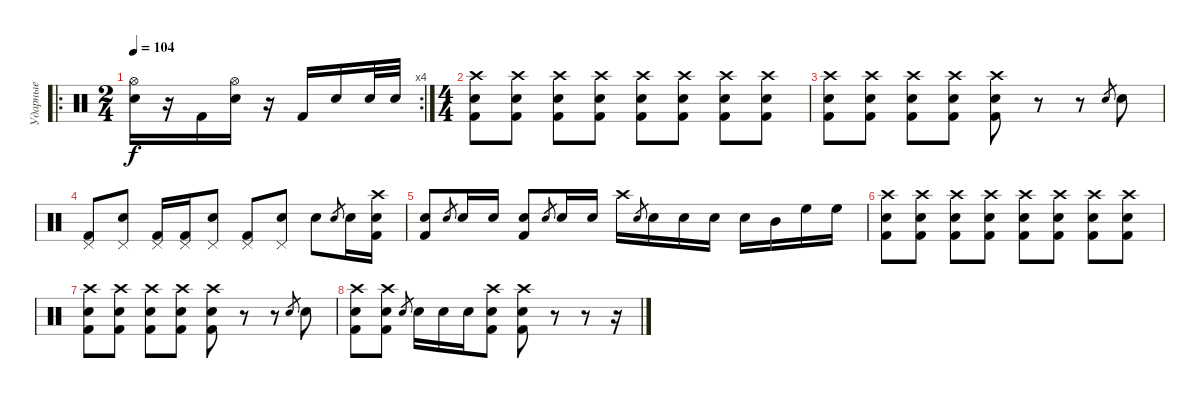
\track ("Ударные" "Ударные") {instrument percussion}
\staff
\articulation defaults
\ro
\rc 4
\ts (2 4)
\tempo 104
\clef neutral
\ks c
("Hi-Hat (open)" "Electric Snare (hit)").16{dy f} r.16 "Kick (hit) 2".16 ("Hi-Hat (open)" "Electric Snare (hit)").16 r.16 "Kick (hit) 2".16 "Electric Snare (hit)".16 "Electric Snare (hit)".32 "Electric Snare (hit)".32 |
\ts (4 4)
("Electric Snare (hit)" "Crash high (hit)" "Kick (hit) 2").8 ("Electric Snare (hit)" "Crash high (hit)" "Kick (hit) 2").8 ("Electric Snare (hit)" "Crash high (hit)" "Kick (hit) 2").8 ("Electric Snare (hit)" "Crash high (hit)" "Kick (hit) 2").8 ("Electric Snare (hit)" "Crash high (hit)" "Kick (hit) 2").8 ("Electric Snare (hit)" "Crash high (hit)" "Kick (hit) 2").8 ("Electric Snare (hit)" "Crash high (hit)" "Kick (hit) 2").8 ("Electric Snare (hit)" "Crash high (hit)" "Kick (hit) 2").8 |
("Electric Snare (hit)" "Crash high (hit)" "Kick (hit) 2").8 ("Electric Snare (hit)" "Crash high (hit)" "Kick (hit) 2").8 ("Electric Snare (hit)" "Crash high (hit)" "Kick (hit) 2").8 ("Electric Snare (hit)" "Crash high (hit)" "Kick (hit) 2").8 ("Electric Snare (hit)" "Crash high (hit)" "Kick (hit) 2").8 r.8 r.8 "Electric Snare (hit)".8{gr} "Electric Snare (hit)".8 |
("Pedal Hi-Hat (hit)" "Kick (hit) 2").8 ("Pedal Hi-Hat (hit)" "Electric Snare (hit)").8 ("Pedal Hi-Hat (hit)" "Kick (hit) 2").16 ("Pedal Hi-Hat (hit)" "Kick (hit) 2").16 ("Pedal Hi-Hat (hit)" "Electric Snare (hit)").8 ("Pedal Hi-Hat (hit)" "Kick (hit) 2").8 ("Pedal Hi-Hat (hit)" "Electric Snare (hit)").8 "Electric Snare (hit)".8 "Electric Snare (hit)".8{gr} "Electric Snare (hit)".16 ("Crash high (hit)" "Electric Snare (hit)" "Kick (hit) 2").16 |
("Electric Snare (hit)" "Kick (hit) 2").8 "Electric Snare (hit)".8{gr} "Electric Snare (hit)".16 "Electric Snare (hit)".16 ("Electric Snare (hit)" "Kick (hit) 2").8 "Electric Snare (hit)".8{gr} "Electric Snare (hit)".16 "Electric Snare (hit)".16 "Crash high (hit)".16 "Electric Snare (hit)".8{gr} "Electric Snare (hit)".16 "Electric Snare (hit)".16 "Electric Snare (hit)".16 "Electric Snare (hit)".16 "Mid Tom (hit)".16 "High Floor Tom (hit)".16 "High Floor Tom (hit)".16 |
("Electric Snare (hit)" "Crash high (hit)" "Kick (hit) 2").8 ("Electric Snare (hit)" "Crash high (hit)" "Kick (hit) 2").8 ("Electric Snare (hit)" "Crash high (hit)" "Kick (hit) 2").8 ("Electric Snare (hit)" "Crash high (hit)" "Kick (hit) 2").8 ("Electric Snare (hit)" "Crash high (hit)" "Kick (hit) 2").8 ("Electric Snare (hit)" "Crash high (hit)" "Kick (hit) 2").8 ("Electric Snare (hit)" "Crash high (hit)" "Kick (hit) 2").8 ("Electric Snare (hit)" "Crash high (hit)" "Kick (hit) 2").8 |
("Electric Snare (hit)" "Crash high (hit)" "Kick (hit) 2").8 ("Electric Snare (hit)" "Crash high (hit)" "Kick (hit) 2").8 ("Electric Snare (hit)" "Crash high (hit)" "Kick (hit) 2").8 ("Electric Snare (hit)" "Crash high (hit)" "Kick (hit) 2").8 ("Electric Snare (hit)" "Crash high (hit)" "Kick (hit) 2").8 r.8 r.8 "Electric Snare (hit)".8{gr} "Electric Snare (hit)".8 |
("Electric Snare (hit)" "Kick (hit) 2" "Crash high (hit)").8 ("Electric Snare (hit)" "Kick (hit) 2" "Crash high (hit)").8 "Electric Snare (hit)".8{gr} "Electric Snare (hit)".16 "Electric Snare (hit)".16 "Electric Snare (hit)".16 ("Electric Snare (hit)" "Kick (hit) 2" "Crash high (hit)").8 ("Electric Snare (hit)" "Kick (hit) 2" "Crash high (hit)").8 r.8 r.8 r.16
